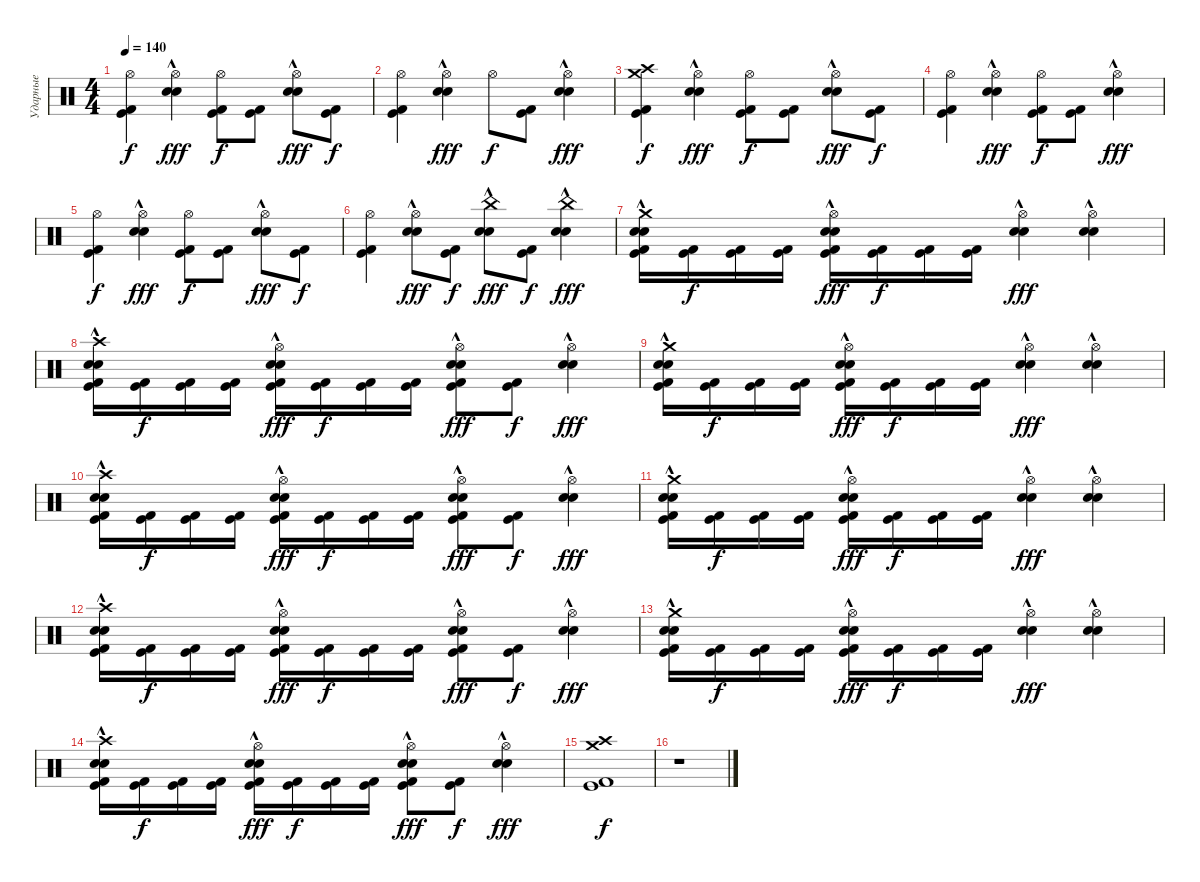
\track ("Ударные" "Ударные") {instrument percussion}
\staff {score}
\articulation defaults
\ts (4 4)
\tempo 140
\clef neutral
\ks c
("Hi-Hat (open)" "Kick (hit)" "Kick (hit) 2").4{dy f} ("Hi-Hat (open)" "Snare (hit) 2"{hac} "Electric Snare (hit)"{hac}).4{dy fff} ("Hi-Hat (open)" "Kick (hit)" "Kick (hit) 2").8{dy f} ("Kick (hit)" "Kick (hit) 2").8 ("Hi-Hat (open)" "Snare (hit) 2"{hac} "Electric Snare (hit)"{hac}).8{dy fff} ("Kick (hit)" "Kick (hit) 2").8{dy f} |
("Hi-Hat (open)" "Kick (hit)" "Kick (hit) 2").4 ("Hi-Hat (open)" "Snare (hit) 2"{hac} "Electric Snare (hit)"{hac}).4{dy fff} "Hi-Hat (open)".8{dy f} ("Kick (hit)" "Kick (hit) 2").8 ("Hi-Hat (open)" "Snare (hit) 2"{hac} "Electric Snare (hit)"{hac}).4{dy fff} |
("Crash high (hit)" "Kick (hit)" "Kick (hit) 2" "Crash medium (hit)").4{dy f} ("Hi-Hat (open)" "Snare (hit) 2"{hac} "Electric Snare (hit)"{hac}).4{dy fff} ("Hi-Hat (open)" "Kick (hit)" "Kick (hit) 2").8{dy f} ("Kick (hit)" "Kick (hit) 2").8 ("Hi-Hat (open)" "Snare (hit) 2"{hac} "Electric Snare (hit)"{hac}).8{dy fff} ("Kick (hit)" "Kick (hit) 2").8{dy f} |
("Hi-Hat (open)" "Kick (hit)" "Kick (hit) 2").4 ("Hi-Hat (open)" "Snare (hit) 2"{hac} "Electric Snare (hit)"{hac}).4{dy fff} ("Hi-Hat (open)" "Kick (hit)" "Kick (hit) 2").8{dy f} ("Kick (hit)" "Kick (hit) 2").8 ("Hi-Hat (open)" "Snare (hit) 2"{hac} "Electric Snare (hit)"{hac}).4{dy fff} |
("Hi-Hat (open)" "Kick (hit)" "Kick (hit) 2").4{dy f} ("Hi-Hat (open)" "Snare (hit) 2"{hac} "Electric Snare (hit)"{hac}).4{dy fff} ("Hi-Hat (open)" "Kick (hit)" "Kick (hit) 2").8{dy f} ("Kick (hit)" "Kick (hit) 2").8 ("Hi-Hat (open)" "Snare (hit) 2"{hac} "Electric Snare (hit)"{hac}).8{dy fff} ("Kick (hit)" "Kick (hit) 2").8{dy f} |
("Hi-Hat (open)" "Kick (hit)" "Kick (hit) 2").4 ("Hi-Hat (open)" "Snare (hit) 2"{hac} "Electric Snare (hit)"{hac}).8{dy fff} ("Kick (hit)" "Kick (hit) 2").8{dy f} ("China (hit)" "Snare (hit) 2"{hac} "Electric Snare (hit)"{hac}).8{dy fff} ("Kick (hit)" "Kick (hit) 2").8{dy f} ("China (hit)" "Snare (hit) 2"{hac} "Electric Snare (hit)"{hac}).4{dy fff} |
("Crash medium (hit)" "Kick (hit)" "Kick (hit) 2" "Snare (hit) 2"{hac} "Electric Snare (hit)"{hac}).16 ("Kick (hit)" "Kick (hit) 2").16{dy f} ("Kick (hit)" "Kick (hit) 2").16 ("Kick (hit)" "Kick (hit) 2").16 ("Hi-Hat (open)" "Kick (hit)" "Kick (hit) 2" "Snare (hit) 2"{hac} "Electric Snare (hit)"{hac}).16{dy fff} ("Kick (hit)" "Kick (hit) 2").16{dy f} ("Kick (hit)" "Kick (hit) 2").16 ("Kick (hit)" "Kick (hit) 2").16 ("Hi-Hat (open)" "Snare (hit) 2"{hac} "Electric Snare (hit)"{hac}).4{dy fff} ("Hi-Hat (open)" "Snare (hit) 2"{hac} "Electric Snare (hit)"{hac}).4 |
("Crash high (hit)" "Kick (hit)" "Kick (hit) 2" "Snare (hit) 2"{hac} "Electric Snare (hit)"{hac}).16 ("Kick (hit)" "Kick (hit) 2").16{dy f} ("Kick (hit)" "Kick (hit) 2").16 ("Kick (hit)" "Kick (hit) 2").16 ("Hi-Hat (open)" "Kick (hit)" "Kick (hit) 2" "Snare (hit) 2"{hac} "Electric Snare (hit)"{hac}).16{dy fff} ("Kick (hit)" "Kick (hit) 2").16{dy f} ("Kick (hit)" "Kick (hit) 2").16 ("Kick (hit)" "Kick (hit) 2").16 ("Hi-Hat (open)" "Kick (hit)" "Kick (hit) 2" "Snare (hit) 2"{hac} "Electric Snare (hit)"{hac}).8{dy fff} ("Kick (hit)" "Kick (hit) 2").8{dy f} ("Hi-Hat (open)" "Snare (hit) 2"{hac} "Electric Snare (hit)"{hac}).4{dy fff} |
("Crash medium (hit)" "Kick (hit)" "Kick (hit) 2" "Snare (hit) 2"{hac} "Electric Snare (hit)"{hac}).16 ("Kick (hit)" "Kick (hit) 2").16{dy f} ("Kick (hit)" "Kick (hit) 2").16 ("Kick (hit)" "Kick (hit) 2").16 ("Hi-Hat (open)" "Kick (hit)" "Kick (hit) 2" "Snare (hit) 2"{hac} "Electric Snare (hit)"{hac}).16{dy fff} ("Kick (hit)" "Kick (hit) 2").16{dy f} ("Kick (hit)" "Kick (hit) 2").16 ("Kick (hit)" "Kick (hit) 2").16 ("Hi-Hat (open)" "Snare (hit) 2"{hac} "Electric Snare (hit)"{hac}).4{dy fff} ("Hi-Hat (open)" "Snare (hit) 2"{hac} "Electric Snare (hit)"{hac}).4 |
("Crash high (hit)" "Kick (hit)" "Kick (hit) 2" "Snare (hit) 2"{hac} "Electric Snare (hit)"{hac}).16 ("Kick (hit)" "Kick (hit) 2").16{dy f} ("Kick (hit)" "Kick (hit) 2").16 ("Kick (hit)" "Kick (hit) 2").16 ("Hi-Hat (open)" "Kick (hit)" "Kick (hit) 2" "Snare (hit) 2"{hac} "Electric Snare (hit)"{hac}).16{dy fff} ("Kick (hit)" "Kick (hit) 2").16{dy f} ("Kick (hit)" "Kick (hit) 2").16 ("Kick (hit)" "Kick (hit) 2").16 ("Hi-Hat (open)" "Kick (hit)" "Kick (hit) 2" "Snare (hit) 2"{hac} "Electric Snare (hit)"{hac}).8{dy fff} ("Kick (hit)" "Kick (hit) 2").8{dy f} ("Hi-Hat (open)" "Snare (hit) 2"{hac} "Electric Snare (hit)"{hac}).4{dy fff} |
("Crash medium (hit)" "Kick (hit)" "Kick (hit) 2" "Snare (hit) 2"{hac} "Electric Snare (hit)"{hac}).16 ("Kick (hit)" "Kick (hit) 2").16{dy f} ("Kick (hit)" "Kick (hit) 2").16 ("Kick (hit)" "Kick (hit) 2").16 ("Hi-Hat (open)" "Kick (hit)" "Kick (hit) 2" "Snare (hit) 2"{hac} "Electric Snare (hit)"{hac}).16{dy fff} ("Kick (hit)" "Kick (hit) 2").16{dy f} ("Kick (hit)" "Kick (hit) 2").16 ("Kick (hit)" "Kick (hit) 2").16 ("Hi-Hat (open)" "Snare (hit) 2"{hac} "Electric Snare (hit)"{hac}).4{dy fff} ("Hi-Hat (open)" "Snare (hit) 2"{hac} "Electric Snare (hit)"{hac}).4 |
("Crash high (hit)" "Kick (hit)" "Kick (hit) 2" "Snare (hit) 2"{hac} "Electric Snare (hit)"{hac}).16 ("Kick (hit)" "Kick (hit) 2").16{dy f} ("Kick (hit)" "Kick (hit) 2").16 ("Kick (hit)" "Kick (hit) 2").16 ("Hi-Hat (open)" "Kick (hit)" "Kick (hit) 2" "Snare (hit) 2"{hac} "Electric Snare (hit)"{hac}).16{dy fff} ("Kick (hit)" "Kick (hit) 2").16{dy f} ("Kick (hit)" "Kick (hit) 2").16 ("Kick (hit)" "Kick (hit) 2").16 ("Hi-Hat (open)" "Kick (hit)" "Kick (hit) 2" "Snare (hit) 2"{hac} "Electric Snare (hit)"{hac}).8{dy fff} ("Kick (hit)" "Kick (hit) 2").8{dy f} ("Hi-Hat (open)" "Snare (hit) 2"{hac} "Electric Snare (hit)"{hac}).4{dy fff} |
("Crash medium (hit)" "Kick (hit)" "Kick (hit) 2" "Snare (hit) 2"{hac} "Electric Snare (hit)"{hac}).16 ("Kick (hit)" "Kick (hit) 2").16{dy f} ("Kick (hit)" "Kick (hit) 2").16 ("Kick (hit)" "Kick (hit) 2").16 ("Hi-Hat (open)" "Kick (hit)" "Kick (hit) 2" "Snare (hit) 2"{hac} "Electric Snare (hit)"{hac}).16{dy fff} ("Kick (hit)" "Kick (hit) 2").16{dy f} ("Kick (hit)" "Kick (hit) 2").16 ("Kick (hit)" "Kick (hit) 2").16 ("Hi-Hat (open)" "Snare (hit) 2"{hac} "Electric Snare (hit)"{hac}).4{dy fff} ("Hi-Hat (open)" "Snare (hit) 2"{hac} "Electric Snare (hit)"{hac}).4 |
("Crash high (hit)" "Kick (hit)" "Kick (hit) 2" "Snare (hit) 2"{hac} "Electric Snare (hit)"{hac}).16 ("Kick (hit)" "Kick (hit) 2").16{dy f} ("Kick (hit)" "Kick (hit) 2").16 ("Kick (hit)" "Kick (hit) 2").16 ("Hi-Hat (open)" "Kick (hit)" "Kick (hit) 2" "Snare (hit) 2"{hac} "Electric Snare (hit)"{hac}).16{dy fff} ("Kick (hit)" "Kick (hit) 2").16{dy f} ("Kick (hit)" "Kick (hit) 2").16 ("Kick (hit)" "Kick (hit) 2").16 ("Hi-Hat (open)" "Kick (hit)" "Kick (hit) 2" "Snare (hit) 2"{hac} "Electric Snare (hit)"{hac}).8{dy fff} ("Kick (hit)" "Kick (hit) 2").8{dy f} ("Hi-Hat (open)" "Snare (hit) 2"{hac} "Electric Snare (hit)"{hac}).4{dy fff} |
("Crash high (hit)" "Kick (hit)" "Kick (hit) 2" "Crash medium (hit)").1{dy f} |
r.1
